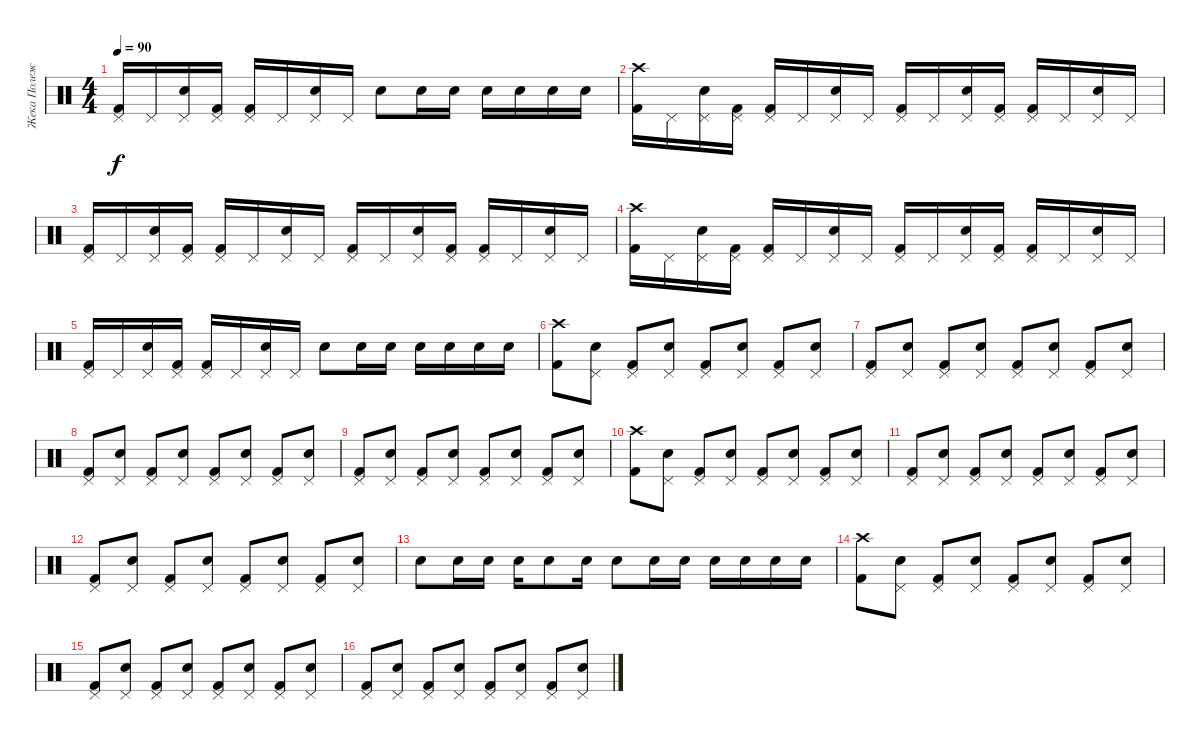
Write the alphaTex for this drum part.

\track ("Жека Полежаев" "Жека Полеж") {instrument percussion}
\staff {score}
\articulation defaults
\ts (4 4)
\tempo 90
\clef neutral
\ks c
("Pedal Hi-Hat (hit)" "Kick (hit) 2").16{dy f} "Pedal Hi-Hat (hit)".16 ("Pedal Hi-Hat (hit)" "Snare (hit) 2").16 ("Pedal Hi-Hat (hit)" "Kick (hit) 2").16 ("Pedal Hi-Hat (hit)" "Kick (hit) 2").16 "Pedal Hi-Hat (hit)".16 ("Pedal Hi-Hat (hit)" "Snare (hit) 2").16 "Pedal Hi-Hat (hit)".16 "Snare (hit) 2".8 "Snare (hit) 2".16 "Snare (hit) 2".16 "Snare (hit) 2".16 "Snare (hit) 2".16 "Snare (hit) 2".16 "Snare (hit) 2".16 |
("Crash high (hit)" "Kick (hit) 2").16 "Pedal Hi-Hat (hit)".16 ("Pedal Hi-Hat (hit)" "Snare (hit) 2").16 ("Pedal Hi-Hat (hit)" "Kick (hit) 2").16 ("Pedal Hi-Hat (hit)" "Kick (hit) 2").16 "Pedal Hi-Hat (hit)".16 ("Pedal Hi-Hat (hit)" "Snare (hit) 2").16 "Pedal Hi-Hat (hit)".16 ("Pedal Hi-Hat (hit)" "Kick (hit) 2").16 "Pedal Hi-Hat (hit)".16 ("Pedal Hi-Hat (hit)" "Snare (hit) 2").16 ("Pedal Hi-Hat (hit)" "Kick (hit) 2").16 ("Pedal Hi-Hat (hit)" "Kick (hit) 2").16 "Pedal Hi-Hat (hit)".16 ("Pedal Hi-Hat (hit)" "Snare (hit) 2").16 "Pedal Hi-Hat (hit)".16 |
("Pedal Hi-Hat (hit)" "Kick (hit) 2").16 "Pedal Hi-Hat (hit)".16 ("Pedal Hi-Hat (hit)" "Snare (hit) 2").16 ("Pedal Hi-Hat (hit)" "Kick (hit) 2").16 ("Pedal Hi-Hat (hit)" "Kick (hit) 2").16 "Pedal Hi-Hat (hit)".16 ("Pedal Hi-Hat (hit)" "Snare (hit) 2").16 "Pedal Hi-Hat (hit)".16 ("Pedal Hi-Hat (hit)" "Kick (hit) 2").16 "Pedal Hi-Hat (hit)".16 ("Pedal Hi-Hat (hit)" "Snare (hit) 2").16 ("Pedal Hi-Hat (hit)" "Kick (hit) 2").16 ("Pedal Hi-Hat (hit)" "Kick (hit) 2").16 "Pedal Hi-Hat (hit)".16 ("Pedal Hi-Hat (hit)" "Snare (hit) 2").16 "Pedal Hi-Hat (hit)".16 |
("Crash high (hit)" "Kick (hit) 2").16 "Pedal Hi-Hat (hit)".16 ("Pedal Hi-Hat (hit)" "Snare (hit) 2").16 ("Pedal Hi-Hat (hit)" "Kick (hit) 2").16 ("Pedal Hi-Hat (hit)" "Kick (hit) 2").16 "Pedal Hi-Hat (hit)".16 ("Pedal Hi-Hat (hit)" "Snare (hit) 2").16 "Pedal Hi-Hat (hit)".16 ("Pedal Hi-Hat (hit)" "Kick (hit) 2").16 "Pedal Hi-Hat (hit)".16 ("Pedal Hi-Hat (hit)" "Snare (hit) 2").16 ("Pedal Hi-Hat (hit)" "Kick (hit) 2").16 ("Pedal Hi-Hat (hit)" "Kick (hit) 2").16 "Pedal Hi-Hat (hit)".16 ("Pedal Hi-Hat (hit)" "Snare (hit) 2").16 "Pedal Hi-Hat (hit)".16 |
("Pedal Hi-Hat (hit)" "Kick (hit) 2").16 "Pedal Hi-Hat (hit)".16 ("Pedal Hi-Hat (hit)" "Snare (hit) 2").16 ("Pedal Hi-Hat (hit)" "Kick (hit) 2").16 ("Pedal Hi-Hat (hit)" "Kick (hit) 2").16 "Pedal Hi-Hat (hit)".16 ("Pedal Hi-Hat (hit)" "Snare (hit) 2").16 "Pedal Hi-Hat (hit)".16 "Snare (hit) 2".8 "Snare (hit) 2".16 "Snare (hit) 2".16 "Snare (hit) 2".16 "Snare (hit) 2".16 "Snare (hit) 2".16 "Snare (hit) 2".16 |
("Crash high (hit)" "Kick (hit) 2").8 ("Pedal Hi-Hat (hit)" "Snare (hit) 2").8 ("Pedal Hi-Hat (hit)" "Kick (hit) 2").8 ("Pedal Hi-Hat (hit)" "Snare (hit) 2").8 ("Pedal Hi-Hat (hit)" "Kick (hit) 2").8 ("Pedal Hi-Hat (hit)" "Snare (hit) 2").8 ("Pedal Hi-Hat (hit)" "Kick (hit) 2").8 ("Pedal Hi-Hat (hit)" "Snare (hit) 2").8 |
("Pedal Hi-Hat (hit)" "Kick (hit) 2").8 ("Pedal Hi-Hat (hit)" "Snare (hit) 2").8 ("Pedal Hi-Hat (hit)" "Kick (hit) 2").8 ("Pedal Hi-Hat (hit)" "Snare (hit) 2").8 ("Pedal Hi-Hat (hit)" "Kick (hit) 2").8 ("Pedal Hi-Hat (hit)" "Snare (hit) 2").8 ("Pedal Hi-Hat (hit)" "Kick (hit) 2").8 ("Pedal Hi-Hat (hit)" "Snare (hit) 2").8 |
("Pedal Hi-Hat (hit)" "Kick (hit) 2").8 ("Pedal Hi-Hat (hit)" "Snare (hit) 2").8 ("Pedal Hi-Hat (hit)" "Kick (hit) 2").8 ("Pedal Hi-Hat (hit)" "Snare (hit) 2").8 ("Pedal Hi-Hat (hit)" "Kick (hit) 2").8 ("Pedal Hi-Hat (hit)" "Snare (hit) 2").8 ("Pedal Hi-Hat (hit)" "Kick (hit) 2").8 ("Pedal Hi-Hat (hit)" "Snare (hit) 2").8 |
("Pedal Hi-Hat (hit)" "Kick (hit) 2").8 ("Pedal Hi-Hat (hit)" "Snare (hit) 2").8 ("Pedal Hi-Hat (hit)" "Kick (hit) 2").8 ("Pedal Hi-Hat (hit)" "Snare (hit) 2").8 ("Pedal Hi-Hat (hit)" "Kick (hit) 2").8 ("Pedal Hi-Hat (hit)" "Snare (hit) 2").8 ("Pedal Hi-Hat (hit)" "Kick (hit) 2").8 ("Pedal Hi-Hat (hit)" "Snare (hit) 2").8 |
("Crash high (hit)" "Kick (hit) 2").8 ("Pedal Hi-Hat (hit)" "Snare (hit) 2").8 ("Pedal Hi-Hat (hit)" "Kick (hit) 2").8 ("Pedal Hi-Hat (hit)" "Snare (hit) 2").8 ("Pedal Hi-Hat (hit)" "Kick (hit) 2").8 ("Pedal Hi-Hat (hit)" "Snare (hit) 2").8 ("Pedal Hi-Hat (hit)" "Kick (hit) 2").8 ("Pedal Hi-Hat (hit)" "Snare (hit) 2").8 |
("Pedal Hi-Hat (hit)" "Kick (hit) 2").8 ("Pedal Hi-Hat (hit)" "Snare (hit) 2").8 ("Pedal Hi-Hat (hit)" "Kick (hit) 2").8 ("Pedal Hi-Hat (hit)" "Snare (hit) 2").8 ("Pedal Hi-Hat (hit)" "Kick (hit) 2").8 ("Pedal Hi-Hat (hit)" "Snare (hit) 2").8 ("Pedal Hi-Hat (hit)" "Kick (hit) 2").8 ("Pedal Hi-Hat (hit)" "Snare (hit) 2").8 |
("Pedal Hi-Hat (hit)" "Kick (hit) 2").8 ("Pedal Hi-Hat (hit)" "Snare (hit) 2").8 ("Pedal Hi-Hat (hit)" "Kick (hit) 2").8 ("Pedal Hi-Hat (hit)" "Snare (hit) 2").8 ("Pedal Hi-Hat (hit)" "Kick (hit) 2").8 ("Pedal Hi-Hat (hit)" "Snare (hit) 2").8 ("Pedal Hi-Hat (hit)" "Kick (hit) 2").8 ("Pedal Hi-Hat (hit)" "Snare (hit) 2").8 |
"Snare (hit) 2".8 "Snare (hit) 2".16 "Snare (hit) 2".16 "Snare (hit) 2".16 "Snare (hit) 2".8 "Snare (hit) 2".16 "Snare (hit) 2".8 "Snare (hit) 2".16 "Snare (hit) 2".16 "Snare (hit) 2".16 "Snare (hit) 2".16 "Snare (hit) 2".16 "Snare (hit) 2".16 |
("Crash high (hit)" "Kick (hit) 2").8 ("Pedal Hi-Hat (hit)" "Snare (hit) 2").8 ("Pedal Hi-Hat (hit)" "Kick (hit) 2").8 ("Pedal Hi-Hat (hit)" "Snare (hit) 2").8 ("Pedal Hi-Hat (hit)" "Kick (hit) 2").8 ("Pedal Hi-Hat (hit)" "Snare (hit) 2").8 ("Pedal Hi-Hat (hit)" "Kick (hit) 2").8 ("Pedal Hi-Hat (hit)" "Snare (hit) 2").8 |
("Pedal Hi-Hat (hit)" "Kick (hit) 2").8 ("Pedal Hi-Hat (hit)" "Snare (hit) 2").8 ("Pedal Hi-Hat (hit)" "Kick (hit) 2").8 ("Pedal Hi-Hat (hit)" "Snare (hit) 2").8 ("Pedal Hi-Hat (hit)" "Kick (hit) 2").8 ("Pedal Hi-Hat (hit)" "Snare (hit) 2").8 ("Pedal Hi-Hat (hit)" "Kick (hit) 2").8 ("Pedal Hi-Hat (hit)" "Snare (hit) 2").8 |
("Pedal Hi-Hat (hit)" "Kick (hit) 2").8 ("Pedal Hi-Hat (hit)" "Snare (hit) 2").8 ("Pedal Hi-Hat (hit)" "Kick (hit) 2").8 ("Pedal Hi-Hat (hit)" "Snare (hit) 2").8 ("Pedal Hi-Hat (hit)" "Kick (hit) 2").8 ("Pedal Hi-Hat (hit)" "Snare (hit) 2").8 ("Pedal Hi-Hat (hit)" "Kick (hit) 2").8 ("Pedal Hi-Hat (hit)" "Snare (hit) 2").8
